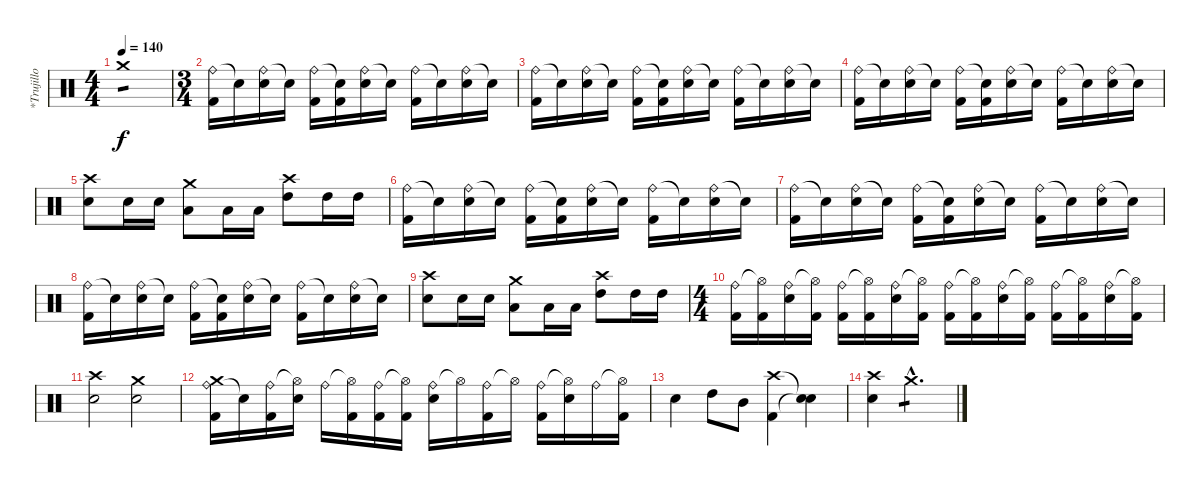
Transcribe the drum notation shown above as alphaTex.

\track ("*Trujillo" "*Trujillo") {instrument percussion}
\staff {score}
\articulation defaults
\ts (4 4)
\tempo 140
\clef neutral
\ks c "Crash medium (hit)".1{tp 1 dy f}
|
\ts (3 4)
("Ride (bell)" "Kick (hit) 2").16 "Snare (hit)"{t}.16 ("Ride (bell)" "Electric Snare (hit)").16 "Snare (hit)"{t}.16 ("Ride (bell)" "Kick (hit) 2").16 ("Snare (hit)"{t} "Kick (hit) 2").16 ("Ride (bell)" "Electric Snare (hit)").16 "Snare (hit)"{t}.16 ("Ride (bell)" "Kick (hit) 2").16 "Snare (hit)"{t}.16 ("Ride (bell)" "Electric Snare (hit)").16 "Snare (hit)"{t}.16 |
("Ride (bell)" "Kick (hit) 2").16 "Snare (hit)"{t}.16 ("Ride (bell)" "Electric Snare (hit)").16 "Snare (hit)"{t}.16 ("Ride (bell)" "Kick (hit) 2").16 ("Snare (hit)"{t} "Kick (hit) 2").16 ("Ride (bell)" "Electric Snare (hit)").16 "Snare (hit)"{t}.16 ("Ride (bell)" "Kick (hit) 2").16 "Snare (hit)"{t}.16 ("Ride (bell)" "Electric Snare (hit)").16 "Snare (hit)"{t}.16 |
("Ride (bell)" "Kick (hit) 2").16 "Snare (hit)"{t}.16 ("Ride (bell)" "Electric Snare (hit)").16 "Snare (hit)"{t}.16 ("Ride (bell)" "Kick (hit) 2").16 ("Snare (hit)"{t} "Kick (hit) 2").16 ("Ride (bell)" "Electric Snare (hit)").16 "Snare (hit)"{t}.16 ("Ride (bell)" "Kick (hit) 2").16 "Snare (hit)"{t}.16 ("Ride (bell)" "Electric Snare (hit)").16 "Snare (hit)"{t}.16 |
("Crash high (hit)" "Electric Snare (hit)").8 "Electric Snare (hit)".16 "Electric Snare (hit)".16 ("Crash medium (hit)" "Low Tom (hit)").8 "Low Tom (hit)".16 "Low Tom (hit)".16 ("Crash high (hit)" "High Tom (hit)").8 "High Tom (hit)".16 "High Tom (hit)".16 |
("Ride (bell)" "Kick (hit) 2").16 "Snare (hit)"{t}.16 ("Ride (bell)" "Electric Snare (hit)").16 "Snare (hit)"{t}.16 ("Ride (bell)" "Kick (hit) 2").16 ("Snare (hit)"{t} "Kick (hit) 2").16 ("Ride (bell)" "Electric Snare (hit)").16 "Snare (hit)"{t}.16 ("Ride (bell)" "Kick (hit) 2").16 "Snare (hit)"{t}.16 ("Ride (bell)" "Electric Snare (hit)").16 "Snare (hit)"{t}.16 |
("Ride (bell)" "Kick (hit) 2").16 "Snare (hit)"{t}.16 ("Ride (bell)" "Electric Snare (hit)").16 "Snare (hit)"{t}.16 ("Ride (bell)" "Kick (hit) 2").16 ("Snare (hit)"{t} "Kick (hit) 2").16 ("Ride (bell)" "Electric Snare (hit)").16 "Snare (hit)"{t}.16 ("Ride (bell)" "Kick (hit) 2").16 "Snare (hit)"{t}.16 ("Ride (bell)" "Electric Snare (hit)").16 "Snare (hit)"{t}.16 |
("Ride (bell)" "Kick (hit) 2").16 "Snare (hit)"{t}.16 ("Ride (bell)" "Electric Snare (hit)").16 "Snare (hit)"{t}.16 ("Ride (bell)" "Kick (hit) 2").16 ("Snare (hit)"{t} "Kick (hit) 2").16 ("Ride (bell)" "Electric Snare (hit)").16 "Snare (hit)"{t}.16 ("Ride (bell)" "Kick (hit) 2").16 "Snare (hit)"{t}.16 ("Ride (bell)" "Electric Snare (hit)").16 "Snare (hit)"{t}.16 |
("Crash high (hit)" "Electric Snare (hit)").8 "Electric Snare (hit)".16 "Electric Snare (hit)".16 ("Crash medium (hit)" "Low Tom (hit)").8 "Low Tom (hit)".16 "Low Tom (hit)".16 ("Crash high (hit)" "High Tom (hit)").8 "High Tom (hit)".16 "High Tom (hit)".16 |
\ts (4 4)
("Ride (bell)" "Kick (hit) 2").16 ("Hi-Hat (open)"{t} "Kick (hit) 2").16 ("Ride (bell)" "Electric Snare (hit)").16 ("Hi-Hat (open)"{t} "Kick (hit) 2").16 ("Ride (bell)" "Kick (hit) 2").16 ("Hi-Hat (open)"{t} "Kick (hit) 2").16 ("Ride (bell)" "Electric Snare (hit)").16 ("Hi-Hat (open)"{t} "Kick (hit) 2").16 ("Ride (bell)" "Kick (hit) 2").16 ("Hi-Hat (open)"{t} "Kick (hit) 2").16 ("Ride (bell)" "Electric Snare (hit)").16 ("Hi-Hat (open)"{t} "Kick (hit) 2").16 ("Ride (bell)" "Kick (hit) 2").16 ("Hi-Hat (open)"{t} "Kick (hit) 2").16 ("Ride (bell)" "Electric Snare (hit)").16 ("Hi-Hat (open)"{t} "Kick (hit) 2").16 |
("Crash high (hit)" "Electric Snare (hit)").2 ("Crash medium (hit)" "Snare (hit) 2").2 |
("Ride (bell)" "Crash medium (hit)"{x} "Kick (hit) 2").16 "Snare (hit)"{t}.16 ("Ride (bell)" "Kick (hit) 2").16 ("Hi-Hat (open)"{t} "Electric Snare (hit)").16 "Ride (bell)".16 ("Hi-Hat (open)"{t} "Kick (hit) 2").16 ("Ride (bell)" "Kick (hit) 2"{x}).16 ("Hi-Hat (open)"{t} "Kick (hit) 2").16 ("Ride (bell)" "Electric Snare (hit)").16 "Hi-Hat (open)"{t}.16 ("Ride (bell)" "Kick (hit) 2").16 "Hi-Hat (open)"{t}.16 ("Ride (bell)" "Kick (hit) 2").16 ("Hi-Hat (open)"{t} "Electric Snare (hit)").16 "Ride (bell)".16 ("Hi-Hat (open)"{t} "Kick (hit) 2").16 |
"Electric Snare (hit)".4 "High Tom (hit)".8 "Mid Tom (hit)".8 ("Crash high (hit)" "Kick (hit) 2").4 ("Electric Snare (hit)"{t} "Snare (hit)"{t}).4 |
("Crash high (hit)" "Electric Snare (hit)").4 "Crash medium (hit)"{hac}.2{d tp 1}
